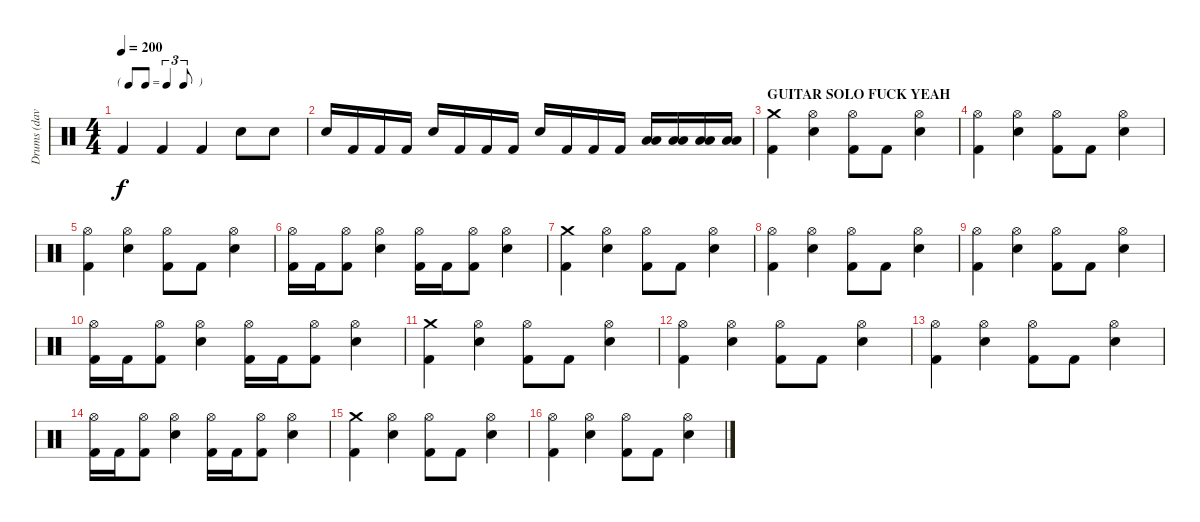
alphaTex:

\track ("Drums (dave)" "Drums (dav") {instrument percussion}
\staff {score}
\articulation defaults
\ts (4 4)
\tf triplet8th
\tempo 200
\clef neutral
\ks c "Kick (hit) 2".4{dy f} "Kick (hit) 2".4 "Kick (hit) 2".4 "Snare (hit) 2".8 "Snare (hit) 2".8
|
"Snare (hit) 2".16 "Kick (hit) 2".16 "Kick (hit) 2".16 "Kick (hit) 2".16 "Snare (hit) 2".16 "Kick (hit) 2".16 "Kick (hit) 2".16 "Kick (hit) 2".16 "Snare (hit) 2".16 "Kick (hit) 2".16 "Kick (hit) 2".16 "Kick (hit) 2".16 ("Low Floor Tom (hit)" "Low Floor Tom (hit)").16 ("Low Floor Tom (hit)" "Low Floor Tom (hit)").16 ("Low Floor Tom (hit)" "Low Floor Tom (hit)").16 ("Low Floor Tom (hit)" "Low Floor Tom (hit)").16 |
\section ("" "GUITAR SOLO FUCK YEAH")
("Crash medium (hit)" "Kick (hit) 2").4 ("Hi-Hat (open)" "Snare (hit) 2").4 ("Hi-Hat (open)" "Kick (hit) 2").8 "Kick (hit) 2".8 ("Hi-Hat (open)" "Snare (hit) 2").4 |
("Hi-Hat (open)" "Kick (hit) 2").4 ("Hi-Hat (open)" "Snare (hit) 2").4 ("Hi-Hat (open)" "Kick (hit) 2").8 "Kick (hit) 2".8 ("Hi-Hat (open)" "Snare (hit) 2").4 |
("Hi-Hat (open)" "Kick (hit) 2").4 ("Hi-Hat (open)" "Snare (hit) 2").4 ("Hi-Hat (open)" "Kick (hit) 2").8 "Kick (hit) 2".8 ("Hi-Hat (open)" "Snare (hit) 2").4 |
("Hi-Hat (open)" "Kick (hit) 2").16 "Kick (hit) 2".16 ("Hi-Hat (open)" "Kick (hit) 2").8 ("Hi-Hat (open)" "Snare (hit) 2").4 ("Hi-Hat (open)" "Kick (hit) 2").16 "Kick (hit) 2".16 ("Hi-Hat (open)" "Kick (hit) 2").8 ("Hi-Hat (open)" "Snare (hit) 2").4 |
("Crash medium (hit)" "Kick (hit) 2").4 ("Hi-Hat (open)" "Snare (hit) 2").4 ("Hi-Hat (open)" "Kick (hit) 2").8 "Kick (hit) 2".8 ("Hi-Hat (open)" "Snare (hit) 2").4 |
("Hi-Hat (open)" "Kick (hit) 2").4 ("Hi-Hat (open)" "Snare (hit) 2").4 ("Hi-Hat (open)" "Kick (hit) 2").8 "Kick (hit) 2".8 ("Hi-Hat (open)" "Snare (hit) 2").4 |
("Hi-Hat (open)" "Kick (hit) 2").4 ("Hi-Hat (open)" "Snare (hit) 2").4 ("Hi-Hat (open)" "Kick (hit) 2").8 "Kick (hit) 2".8 ("Hi-Hat (open)" "Snare (hit) 2").4 |
("Hi-Hat (open)" "Kick (hit) 2").16 "Kick (hit) 2".16 ("Hi-Hat (open)" "Kick (hit) 2").8 ("Hi-Hat (open)" "Snare (hit) 2").4 ("Hi-Hat (open)" "Kick (hit) 2").16 "Kick (hit) 2".16 ("Hi-Hat (open)" "Kick (hit) 2").8 ("Hi-Hat (open)" "Snare (hit) 2").4 |
("Crash medium (hit)" "Kick (hit) 2").4 ("Hi-Hat (open)" "Snare (hit) 2").4 ("Hi-Hat (open)" "Kick (hit) 2").8 "Kick (hit) 2".8 ("Hi-Hat (open)" "Snare (hit) 2").4 |
("Hi-Hat (open)" "Kick (hit) 2").4 ("Hi-Hat (open)" "Snare (hit) 2").4 ("Hi-Hat (open)" "Kick (hit) 2").8 "Kick (hit) 2".8 ("Hi-Hat (open)" "Snare (hit) 2").4 |
("Hi-Hat (open)" "Kick (hit) 2").4 ("Hi-Hat (open)" "Snare (hit) 2").4 ("Hi-Hat (open)" "Kick (hit) 2").8 "Kick (hit) 2".8 ("Hi-Hat (open)" "Snare (hit) 2").4 |
("Hi-Hat (open)" "Kick (hit) 2").16 "Kick (hit) 2".16 ("Hi-Hat (open)" "Kick (hit) 2").8 ("Hi-Hat (open)" "Snare (hit) 2").4 ("Hi-Hat (open)" "Kick (hit) 2").16 "Kick (hit) 2".16 ("Hi-Hat (open)" "Kick (hit) 2").8 ("Hi-Hat (open)" "Snare (hit) 2").4 |
("Crash medium (hit)" "Kick (hit) 2").4 ("Hi-Hat (open)" "Snare (hit) 2").4 ("Hi-Hat (open)" "Kick (hit) 2").8 "Kick (hit) 2".8 ("Hi-Hat (open)" "Snare (hit) 2").4 |
("Hi-Hat (open)" "Kick (hit) 2").4 ("Hi-Hat (open)" "Snare (hit) 2").4 ("Hi-Hat (open)" "Kick (hit) 2").8 "Kick (hit) 2".8 ("Hi-Hat (open)" "Snare (hit) 2").4
